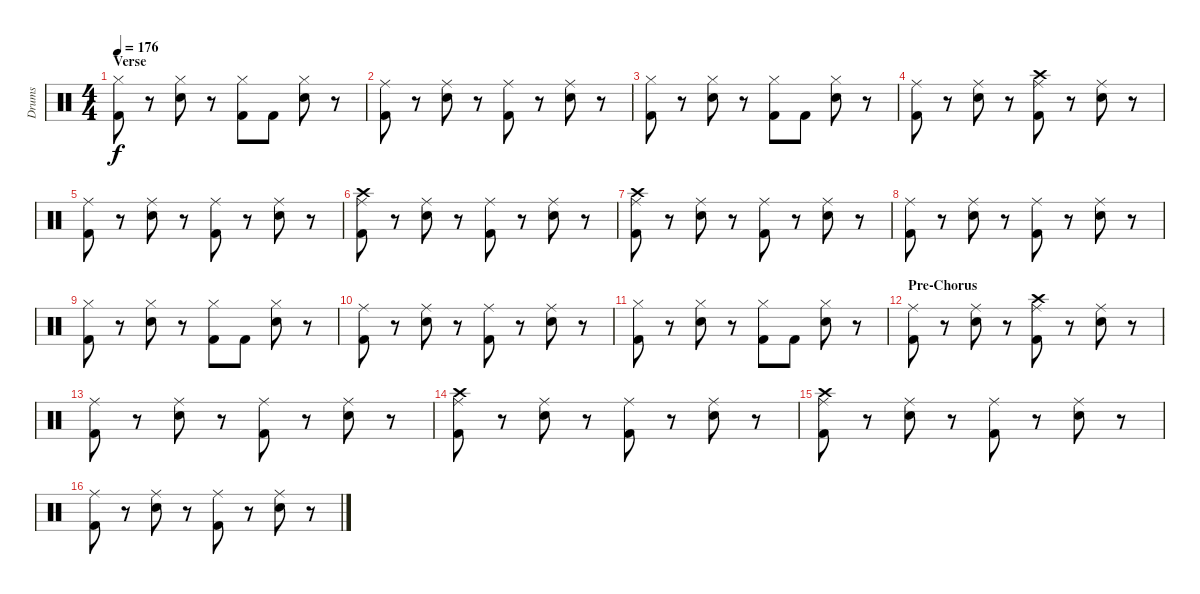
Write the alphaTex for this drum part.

\track ("Drums" "Drums") {instrument percussion}
\staff {score}
\articulation defaults
\ts (4 4)
\section ("" "Verse")
\tempo 176
\clef neutral
\ks c
("Hi-Hat (closed)" "Kick (hit) 2").8{dy f} r.8 ("Hi-Hat (closed)" "Electric Snare (hit)").8 r.8 ("Hi-Hat (closed)" "Kick (hit) 2").8 "Kick (hit) 2".8 ("Hi-Hat (closed)" "Electric Snare (hit)").8 r.8 |
("Ride (middle)" "Kick (hit) 2").8 r.8 ("Ride (middle)" "Electric Snare (hit)").8 r.8 ("Ride (middle)" "Kick (hit) 2").8 r.8 ("Ride (middle)" "Electric Snare (hit)").8 r.8 |
("Hi-Hat (closed)" "Kick (hit) 2").8 r.8 ("Hi-Hat (closed)" "Electric Snare (hit)").8 r.8 ("Hi-Hat (closed)" "Kick (hit) 2").8 "Kick (hit) 2".8 ("Hi-Hat (closed)" "Electric Snare (hit)").8 r.8 |
("Ride (middle)" "Kick (hit) 2").8 r.8 ("Ride (middle)" "Electric Snare (hit)").8 r.8 ("Crash high (hit)" "Ride (middle)" "Kick (hit) 2").8 r.8 ("Ride (middle)" "Electric Snare (hit)").8 r.8 |
("Ride (middle)" "Kick (hit) 2").8 r.8 ("Ride (middle)" "Electric Snare (hit)").8 r.8 ("Ride (middle)" "Kick (hit) 2").8 r.8 ("Ride (middle)" "Electric Snare (hit)").8 r.8 |
("Crash high (hit)" "Ride (middle)" "Kick (hit) 2").8 r.8 ("Ride (middle)" "Electric Snare (hit)").8 r.8 ("Ride (middle)" "Kick (hit) 2").8 r.8 ("Ride (middle)" "Electric Snare (hit)").8 r.8 |
("Crash high (hit)" "Ride (middle)" "Kick (hit) 2").8 r.8 ("Ride (middle)" "Electric Snare (hit)").8 r.8 ("Ride (middle)" "Kick (hit) 2").8 r.8 ("Ride (middle)" "Electric Snare (hit)").8 r.8 |
("Ride (middle)" "Kick (hit) 2").8 r.8 ("Ride (middle)" "Electric Snare (hit)").8 r.8 ("Ride (middle)" "Kick (hit) 2").8 r.8 ("Ride (middle)" "Electric Snare (hit)").8 r.8 |
("Hi-Hat (closed)" "Kick (hit) 2").8 r.8 ("Hi-Hat (closed)" "Electric Snare (hit)").8 r.8 ("Hi-Hat (closed)" "Kick (hit) 2").8 "Kick (hit) 2".8 ("Hi-Hat (closed)" "Electric Snare (hit)").8 r.8 |
("Ride (middle)" "Kick (hit) 2").8 r.8 ("Ride (middle)" "Electric Snare (hit)").8 r.8 ("Ride (middle)" "Kick (hit) 2").8 r.8 ("Ride (middle)" "Electric Snare (hit)").8 r.8 |
("Hi-Hat (closed)" "Kick (hit) 2").8 r.8 ("Hi-Hat (closed)" "Electric Snare (hit)").8 r.8 ("Hi-Hat (closed)" "Kick (hit) 2").8 "Kick (hit) 2".8 ("Hi-Hat (closed)" "Electric Snare (hit)").8 r.8 |
\section ("" "Pre-Chorus")
("Ride (middle)" "Kick (hit) 2").8 r.8 ("Ride (middle)" "Electric Snare (hit)").8 r.8 ("Crash high (hit)" "Ride (middle)" "Kick (hit) 2").8 r.8 ("Ride (middle)" "Electric Snare (hit)").8 r.8 |
("Ride (middle)" "Kick (hit) 2").8 r.8 ("Ride (middle)" "Electric Snare (hit)").8 r.8 ("Ride (middle)" "Kick (hit) 2").8 r.8 ("Ride (middle)" "Electric Snare (hit)").8 r.8 |
("Crash high (hit)" "Ride (middle)" "Kick (hit) 2").8 r.8 ("Ride (middle)" "Electric Snare (hit)").8 r.8 ("Ride (middle)" "Kick (hit) 2").8 r.8 ("Ride (middle)" "Electric Snare (hit)").8 r.8 |
("Crash high (hit)" "Ride (middle)" "Kick (hit) 2").8 r.8 ("Ride (middle)" "Electric Snare (hit)").8 r.8 ("Ride (middle)" "Kick (hit) 2").8 r.8 ("Ride (middle)" "Electric Snare (hit)").8 r.8 |
("Ride (middle)" "Kick (hit) 2").8 r.8 ("Ride (middle)" "Electric Snare (hit)").8 r.8 ("Ride (middle)" "Kick (hit) 2").8 r.8 ("Ride (middle)" "Electric Snare (hit)").8 r.8
